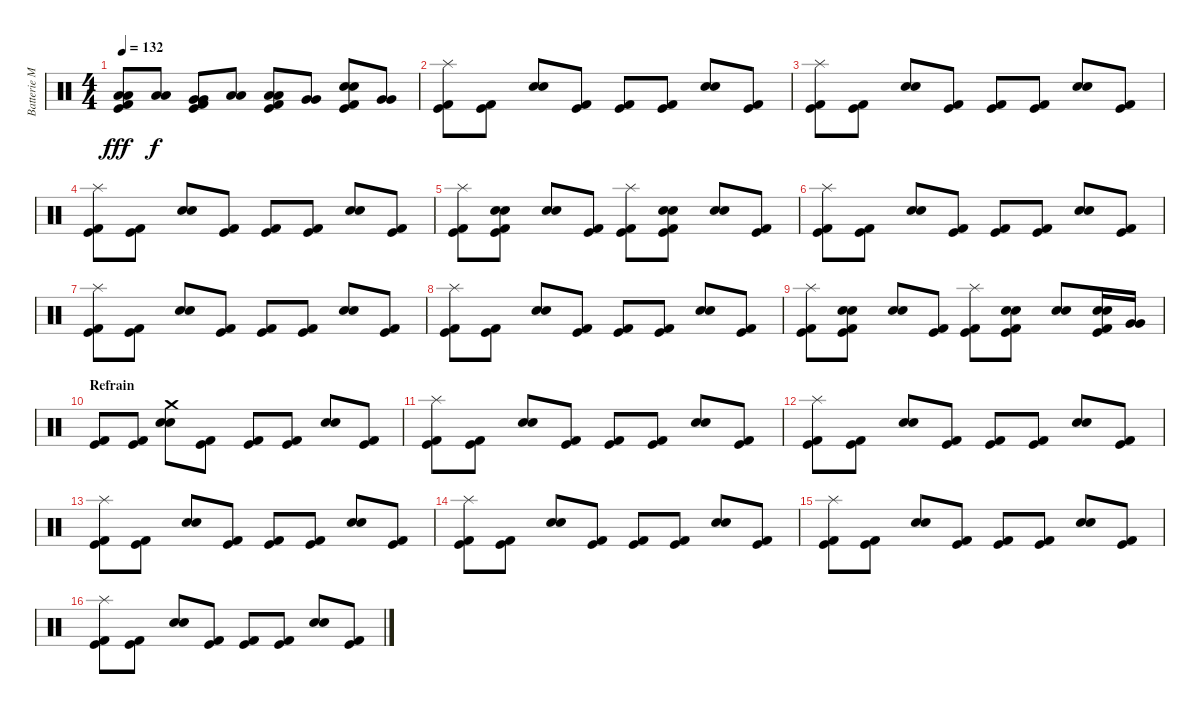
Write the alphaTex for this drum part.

\track ("Batterie Mat" "Batterie M") {instrument percussion}
\staff {score}
\articulation defaults
\ts (4 4)
\tempo 132
\clef neutral
\ks c
("Low Floor Tom (hit)" "Low Floor Tom (hit)" "Kick (hit) 2" "Kick (hit)").8{dy fff} ("Low Tom (hit)" "Low Tom (hit)").8{dy f} ("Very Low Tom (hit)" "Very Low Tom (hit)" "Kick (hit) 2" "Kick (hit)").8 ("Low Floor Tom (hit)" "Low Floor Tom (hit)").8 ("Low Tom (hit)" "Low Tom (hit)" "Kick (hit) 2" "Kick (hit)").8 ("Very Low Tom (hit)" "Very Low Tom (hit)").8 ("Electric Snare (hit)" "Electric Snare (hit)" "Kick (hit) 2" "Kick (hit)").8 ("Very Low Tom (hit)" "Very Low Tom (hit)").8 |
("Splash (hit)" "Kick (hit) 2" "Kick (hit)").8 ("Kick (hit) 2" "Kick (hit)").8 ("Electric Snare (hit)" "Electric Snare (hit)").8 ("Kick (hit) 2" "Kick (hit)").8 ("Kick (hit) 2" "Kick (hit)").8 ("Kick (hit) 2" "Kick (hit)").8 ("Electric Snare (hit)" "Electric Snare (hit)").8 ("Kick (hit) 2" "Kick (hit)").8 |
("Splash (hit)" "Kick (hit) 2" "Kick (hit)").8 ("Kick (hit) 2" "Kick (hit)").8 ("Electric Snare (hit)" "Electric Snare (hit)").8 ("Kick (hit) 2" "Kick (hit)").8 ("Kick (hit) 2" "Kick (hit)").8 ("Kick (hit) 2" "Kick (hit)").8 ("Electric Snare (hit)" "Electric Snare (hit)").8 ("Kick (hit) 2" "Kick (hit)").8 |
("Splash (hit)" "Kick (hit) 2" "Kick (hit)").8 ("Kick (hit) 2" "Kick (hit)").8 ("Electric Snare (hit)" "Electric Snare (hit)").8 ("Kick (hit) 2" "Kick (hit)").8 ("Kick (hit) 2" "Kick (hit)").8 ("Kick (hit) 2" "Kick (hit)").8 ("Electric Snare (hit)" "Electric Snare (hit)").8 ("Kick (hit) 2" "Kick (hit)").8 |
("Splash (hit)" "Kick (hit) 2" "Kick (hit)").8 ("Electric Snare (hit)" "Electric Snare (hit)" "Kick (hit) 2" "Kick (hit)").8 ("Electric Snare (hit)" "Electric Snare (hit)").8 ("Kick (hit) 2" "Kick (hit)").8 ("Splash (hit)" "Kick (hit) 2" "Kick (hit)").8 ("Electric Snare (hit)" "Electric Snare (hit)" "Kick (hit) 2" "Kick (hit)").8 ("Electric Snare (hit)" "Electric Snare (hit)").8 ("Kick (hit) 2" "Kick (hit)").8 |
("Splash (hit)" "Kick (hit) 2" "Kick (hit)").8 ("Kick (hit) 2" "Kick (hit)").8 ("Electric Snare (hit)" "Electric Snare (hit)").8 ("Kick (hit) 2" "Kick (hit)").8 ("Kick (hit) 2" "Kick (hit)").8 ("Kick (hit) 2" "Kick (hit)").8 ("Electric Snare (hit)" "Electric Snare (hit)").8 ("Kick (hit) 2" "Kick (hit)").8 |
("Splash (hit)" "Kick (hit) 2" "Kick (hit)").8 ("Kick (hit) 2" "Kick (hit)").8 ("Electric Snare (hit)" "Electric Snare (hit)").8 ("Kick (hit) 2" "Kick (hit)").8 ("Kick (hit) 2" "Kick (hit)").8 ("Kick (hit) 2" "Kick (hit)").8 ("Electric Snare (hit)" "Electric Snare (hit)").8 ("Kick (hit) 2" "Kick (hit)").8 |
("Splash (hit)" "Kick (hit) 2" "Kick (hit)").8 ("Kick (hit) 2" "Kick (hit)").8 ("Electric Snare (hit)" "Electric Snare (hit)").8 ("Kick (hit) 2" "Kick (hit)").8 ("Kick (hit) 2" "Kick (hit)").8 ("Kick (hit) 2" "Kick (hit)").8 ("Electric Snare (hit)" "Electric Snare (hit)").8 ("Kick (hit) 2" "Kick (hit)").8 |
("Splash (hit)" "Kick (hit) 2" "Kick (hit)").8 ("Electric Snare (hit)" "Electric Snare (hit)" "Kick (hit) 2" "Kick (hit)").8 ("Electric Snare (hit)" "Electric Snare (hit)").8 ("Kick (hit) 2" "Kick (hit)").8 ("Splash (hit)" "Kick (hit) 2" "Kick (hit)").8 ("Electric Snare (hit)" "Electric Snare (hit)" "Kick (hit) 2" "Kick (hit)").8 ("Electric Snare (hit)" "Electric Snare (hit)").8 ("Electric Snare (hit)" "Electric Snare (hit)" "Kick (hit) 2" "Kick (hit)").16 ("Very Low Tom (hit)" "Very Low Tom (hit)").16 |
\section ("" "Refrain")
("Kick (hit) 2" "Kick (hit)").8 ("Kick (hit) 2" "Kick (hit)").8 ("Crash medium (hit)" "Electric Snare (hit)" "Electric Snare (hit)").8 ("Kick (hit) 2" "Kick (hit)").8 ("Kick (hit) 2" "Kick (hit)").8 ("Kick (hit) 2" "Kick (hit)").8 ("Electric Snare (hit)" "Electric Snare (hit)").8 ("Kick (hit) 2" "Kick (hit)").8 |
("Splash (hit)" "Kick (hit) 2" "Kick (hit)").8 ("Kick (hit) 2" "Kick (hit)").8 ("Electric Snare (hit)" "Electric Snare (hit)").8 ("Kick (hit) 2" "Kick (hit)").8 ("Kick (hit) 2" "Kick (hit)").8 ("Kick (hit) 2" "Kick (hit)").8 ("Electric Snare (hit)" "Electric Snare (hit)").8 ("Kick (hit) 2" "Kick (hit)").8 |
("Splash (hit)" "Kick (hit) 2" "Kick (hit)").8 ("Kick (hit) 2" "Kick (hit)").8 ("Electric Snare (hit)" "Electric Snare (hit)").8 ("Kick (hit) 2" "Kick (hit)").8 ("Kick (hit) 2" "Kick (hit)").8 ("Kick (hit) 2" "Kick (hit)").8 ("Electric Snare (hit)" "Electric Snare (hit)").8 ("Kick (hit) 2" "Kick (hit)").8 |
("Splash (hit)" "Kick (hit) 2" "Kick (hit)").8 ("Kick (hit) 2" "Kick (hit)").8 ("Electric Snare (hit)" "Electric Snare (hit)").8 ("Kick (hit) 2" "Kick (hit)").8 ("Kick (hit) 2" "Kick (hit)").8 ("Kick (hit) 2" "Kick (hit)").8 ("Electric Snare (hit)" "Electric Snare (hit)").8 ("Kick (hit) 2" "Kick (hit)").8 |
("Splash (hit)" "Kick (hit) 2" "Kick (hit)").8 ("Kick (hit) 2" "Kick (hit)").8 ("Electric Snare (hit)" "Electric Snare (hit)").8 ("Kick (hit) 2" "Kick (hit)").8 ("Kick (hit) 2" "Kick (hit)").8 ("Kick (hit) 2" "Kick (hit)").8 ("Electric Snare (hit)" "Electric Snare (hit)").8 ("Kick (hit) 2" "Kick (hit)").8 |
("Splash (hit)" "Kick (hit) 2" "Kick (hit)").8 ("Kick (hit) 2" "Kick (hit)").8 ("Electric Snare (hit)" "Electric Snare (hit)").8 ("Kick (hit) 2" "Kick (hit)").8 ("Kick (hit) 2" "Kick (hit)").8 ("Kick (hit) 2" "Kick (hit)").8 ("Electric Snare (hit)" "Electric Snare (hit)").8 ("Kick (hit) 2" "Kick (hit)").8 |
("Splash (hit)" "Kick (hit) 2" "Kick (hit)").8 ("Kick (hit) 2" "Kick (hit)").8 ("Electric Snare (hit)" "Electric Snare (hit)").8 ("Kick (hit) 2" "Kick (hit)").8 ("Kick (hit) 2" "Kick (hit)").8 ("Kick (hit) 2" "Kick (hit)").8 ("Electric Snare (hit)" "Electric Snare (hit)").8 ("Kick (hit) 2" "Kick (hit)").8
